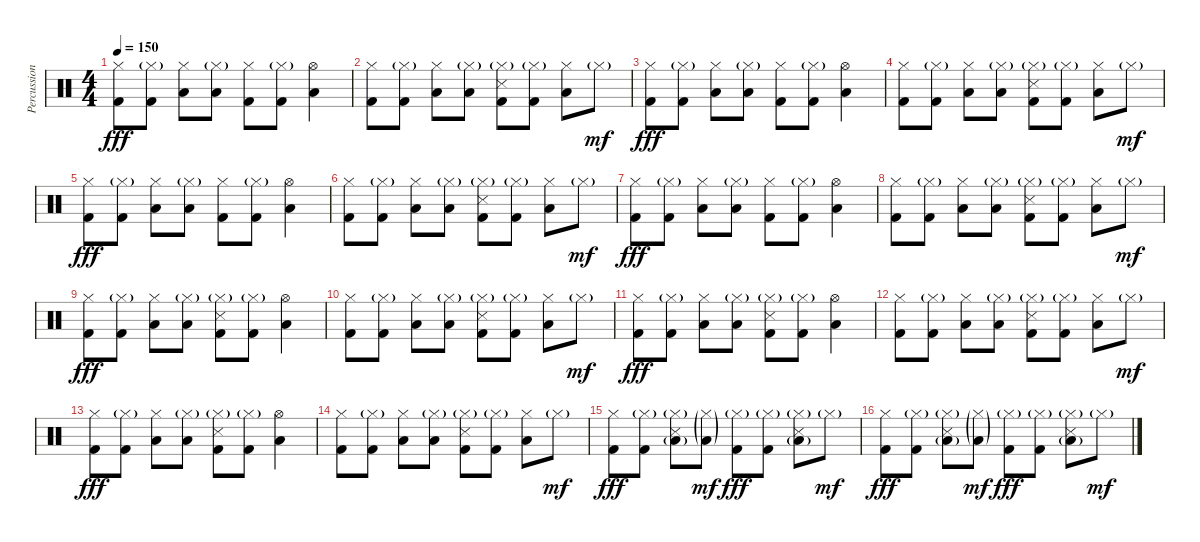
\track ("Percussion" "Percussion") {instrument percussion}
\staff {score}
\articulation defaults
\ts (4 4)
\tempo 150
\clef neutral
\ks c
("Hi-Hat (closed)" "Kick (hit) 2").8{dy fff} ("Hi-Hat (closed)"{g} "Kick (hit) 2").8 ("Hi-Hat (closed)" "Low Tom (hit)").8 ("Hi-Hat (closed)"{g} "Low Tom (hit)").8 ("Hi-Hat (closed)" "Kick (hit) 2").8 ("Hi-Hat (closed)"{g} "Kick (hit) 2").8 ("Hi-Hat (open)" "Low Floor Tom (hit)").4 |
("Hi-Hat (closed)" "Kick (hit) 2").8 ("Hi-Hat (closed)"{g} "Kick (hit) 2").8 ("Hi-Hat (closed)" "Low Tom (hit)").8 ("Hi-Hat (closed)"{g} "Low Tom (hit)").8 ("Hi-Hat (closed)"{g} "Kick (hit) 2" "Snare (side stick) 3").8 ("Hi-Hat (closed)"{g} "Kick (hit) 2").8 ("Hi-Hat (closed)" "Low Floor Tom (hit)").8 "Hi-Hat (closed)"{g}.8{dy mf} |
("Hi-Hat (closed)" "Kick (hit) 2").8{dy fff} ("Hi-Hat (closed)"{g} "Kick (hit) 2").8 ("Hi-Hat (closed)" "Low Tom (hit)").8 ("Hi-Hat (closed)"{g} "Low Tom (hit)").8 ("Hi-Hat (closed)" "Kick (hit) 2").8 ("Hi-Hat (closed)"{g} "Kick (hit) 2").8 ("Hi-Hat (open)" "Low Floor Tom (hit)").4 |
("Hi-Hat (closed)" "Kick (hit) 2").8 ("Hi-Hat (closed)"{g} "Kick (hit) 2").8 ("Hi-Hat (closed)" "Low Tom (hit)").8 ("Hi-Hat (closed)"{g} "Low Tom (hit)").8 ("Hi-Hat (closed)"{g} "Kick (hit) 2" "Snare (side stick) 3").8 ("Hi-Hat (closed)"{g} "Kick (hit) 2").8 ("Hi-Hat (closed)" "Low Floor Tom (hit)").8 "Hi-Hat (closed)"{g}.8{dy mf} |
("Hi-Hat (closed)" "Kick (hit) 2").8{dy fff} ("Hi-Hat (closed)"{g} "Kick (hit) 2").8 ("Hi-Hat (closed)" "Low Tom (hit)").8 ("Hi-Hat (closed)"{g} "Low Tom (hit)").8 ("Hi-Hat (closed)" "Kick (hit) 2").8 ("Hi-Hat (closed)"{g} "Kick (hit) 2").8 ("Hi-Hat (open)" "Low Floor Tom (hit)").4 |
("Hi-Hat (closed)" "Kick (hit) 2").8 ("Hi-Hat (closed)"{g} "Kick (hit) 2").8 ("Hi-Hat (closed)" "Low Tom (hit)").8 ("Hi-Hat (closed)"{g} "Low Tom (hit)").8 ("Hi-Hat (closed)"{g} "Kick (hit) 2" "Snare (side stick) 3").8 ("Hi-Hat (closed)"{g} "Kick (hit) 2").8 ("Hi-Hat (closed)" "Low Floor Tom (hit)").8 "Hi-Hat (closed)"{g}.8{dy mf} |
("Hi-Hat (closed)" "Kick (hit) 2").8{dy fff} ("Hi-Hat (closed)"{g} "Kick (hit) 2").8 ("Hi-Hat (closed)" "Low Tom (hit)").8 ("Hi-Hat (closed)"{g} "Low Tom (hit)").8 ("Hi-Hat (closed)" "Kick (hit) 2").8 ("Hi-Hat (closed)"{g} "Kick (hit) 2").8 ("Hi-Hat (open)" "Low Floor Tom (hit)").4 |
("Hi-Hat (closed)" "Kick (hit) 2").8 ("Hi-Hat (closed)"{g} "Kick (hit) 2").8 ("Hi-Hat (closed)" "Low Tom (hit)").8 ("Hi-Hat (closed)"{g} "Low Tom (hit)").8 ("Hi-Hat (closed)"{g} "Kick (hit) 2" "Snare (side stick) 3").8 ("Hi-Hat (closed)"{g} "Kick (hit) 2").8 ("Hi-Hat (closed)" "Low Floor Tom (hit)").8 "Hi-Hat (closed)"{g}.8{dy mf} |
("Hi-Hat (closed)" "Kick (hit) 2").8{dy fff} ("Hi-Hat (closed)"{g} "Kick (hit) 2").8 ("Hi-Hat (closed)" "Low Tom (hit)").8 ("Hi-Hat (closed)"{g} "Low Tom (hit)").8 ("Hi-Hat (closed)"{g} "Kick (hit) 2" "Snare (side stick) 3").8 ("Hi-Hat (closed)"{g} "Kick (hit) 2").8 ("Hi-Hat (open)" "Low Floor Tom (hit)").4 |
("Hi-Hat (closed)" "Kick (hit) 2").8 ("Hi-Hat (closed)"{g} "Kick (hit) 2").8 ("Hi-Hat (closed)" "Low Tom (hit)").8 ("Hi-Hat (closed)"{g} "Low Tom (hit)").8 ("Hi-Hat (closed)"{g} "Kick (hit) 2" "Snare (side stick) 3").8 ("Hi-Hat (closed)"{g} "Kick (hit) 2").8 ("Hi-Hat (closed)" "Low Floor Tom (hit)").8 "Hi-Hat (closed)"{g}.8{dy mf} |
("Hi-Hat (closed)" "Kick (hit) 2").8{dy fff} ("Hi-Hat (closed)"{g} "Kick (hit) 2").8 ("Hi-Hat (closed)" "Low Tom (hit)").8 ("Hi-Hat (closed)"{g} "Low Tom (hit)").8 ("Hi-Hat (closed)"{g} "Kick (hit) 2" "Snare (side stick) 3").8 ("Hi-Hat (closed)"{g} "Kick (hit) 2").8 ("Hi-Hat (open)" "Low Floor Tom (hit)").4 |
("Hi-Hat (closed)" "Kick (hit) 2").8 ("Hi-Hat (closed)"{g} "Kick (hit) 2").8 ("Hi-Hat (closed)" "Low Tom (hit)").8 ("Hi-Hat (closed)"{g} "Low Tom (hit)").8 ("Hi-Hat (closed)"{g} "Kick (hit) 2" "Snare (side stick) 3").8 ("Hi-Hat (closed)"{g} "Kick (hit) 2").8 ("Hi-Hat (closed)" "Low Floor Tom (hit)").8 "Hi-Hat (closed)"{g}.8{dy mf} |
("Hi-Hat (closed)" "Kick (hit) 2").8{dy fff} ("Hi-Hat (closed)"{g} "Kick (hit) 2").8 ("Hi-Hat (closed)" "Low Tom (hit)").8 ("Hi-Hat (closed)"{g} "Low Tom (hit)").8 ("Hi-Hat (closed)"{g} "Kick (hit) 2" "Snare (side stick) 3").8 ("Hi-Hat (closed)"{g} "Kick (hit) 2").8 ("Hi-Hat (open)" "Low Floor Tom (hit)").4 |
("Hi-Hat (closed)" "Kick (hit) 2").8 ("Hi-Hat (closed)"{g} "Kick (hit) 2").8 ("Hi-Hat (closed)" "Low Tom (hit)").8 ("Hi-Hat (closed)"{g} "Low Tom (hit)").8 ("Hi-Hat (closed)"{g} "Kick (hit) 2" "Snare (side stick) 3").8 ("Hi-Hat (closed)"{g} "Kick (hit) 2").8 ("Hi-Hat (closed)" "Low Floor Tom (hit)").8 "Hi-Hat (closed)"{g}.8{dy mf} |
("Hi-Hat (closed)" "Kick (hit) 2").8{dy fff} ("Hi-Hat (closed)"{g} "Kick (hit) 2").8 ("Hi-Hat (closed)"{g} "Snare (side stick) 3" "Low Tom (hit)"{g}).8 ("Hi-Hat (closed)"{g} "Low Tom (hit)"{g}).8{dy mf} ("Hi-Hat (closed)"{g} "Kick (hit) 2").8{dy fff} ("Hi-Hat (closed)"{g} "Kick (hit) 2").8 ("Hi-Hat (closed)"{g} "Snare (side stick) 3" "Low Floor Tom (hit)"{g}).8 "Hi-Hat (closed)"{g}.8{dy mf} |
("Hi-Hat (closed)" "Kick (hit) 2").8{dy fff} ("Hi-Hat (closed)"{g} "Kick (hit) 2").8 ("Hi-Hat (closed)"{g} "Snare (side stick) 3" "Low Tom (hit)"{g}).8 ("Hi-Hat (closed)"{g} "Low Tom (hit)"{g}).8{dy mf} ("Hi-Hat (closed)"{g} "Kick (hit) 2").8{dy fff} ("Hi-Hat (closed)"{g} "Kick (hit) 2").8 ("Hi-Hat (closed)"{g} "Snare (side stick) 3" "Low Floor Tom (hit)"{g}).8 "Hi-Hat (closed)"{g}.8{dy mf}
